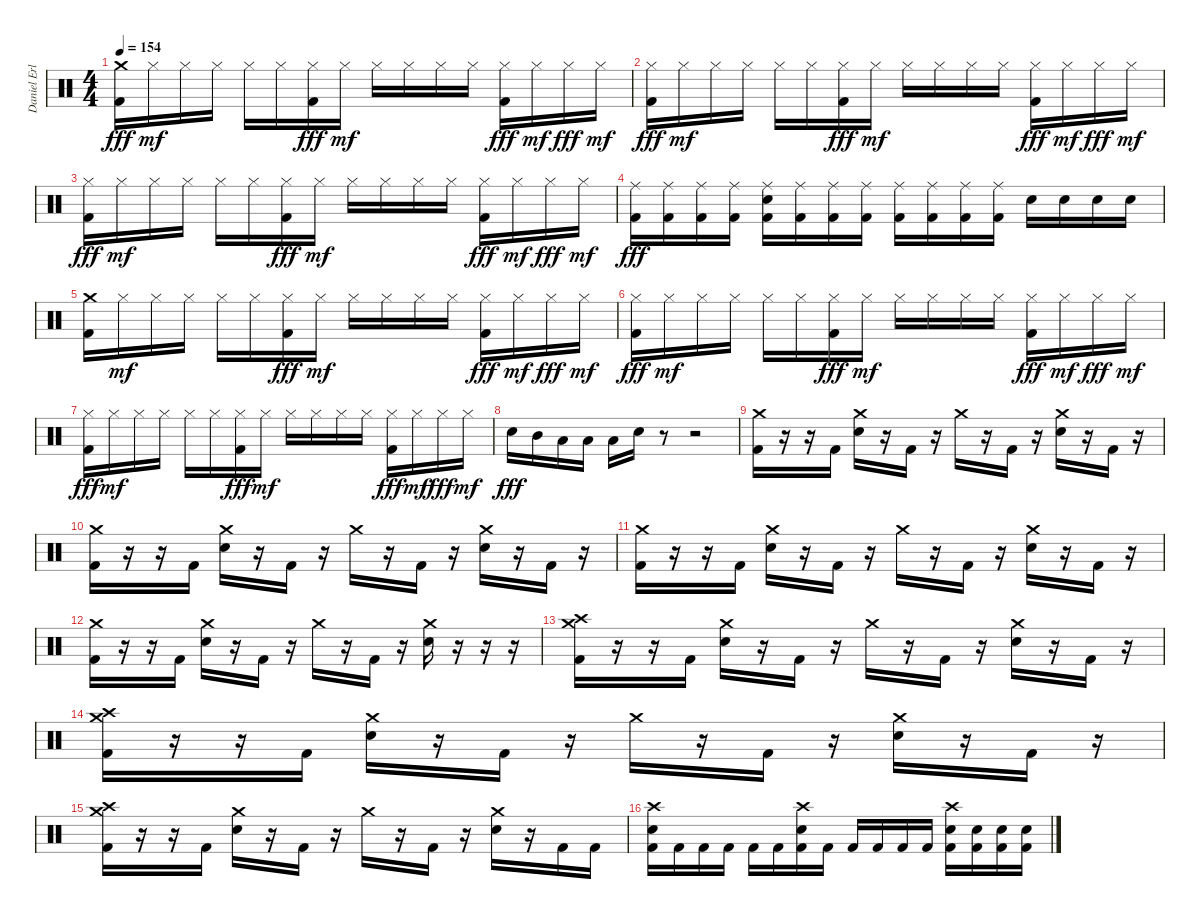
\track ("Daniel Erlandsson" "Daniel Erl") {instrument percussion}
\staff {score}
\articulation defaults
\ts (4 4)
\tempo 154
\clef neutral
\ks c
("Crash medium (hit)" "Kick (hit) 2").16{dy fff} "Hi-Hat (closed)".16{dy mf} "Hi-Hat (closed)".16 "Hi-Hat (closed)".16 "Hi-Hat (closed)".16 "Hi-Hat (closed)".16 ("Hi-Hat (closed)" "Kick (hit) 2").16{dy fff} "Hi-Hat (closed)".16{dy mf} "Hi-Hat (closed)".16 "Hi-Hat (closed)".16 "Hi-Hat (closed)".16 "Hi-Hat (closed)".16 ("Hi-Hat (closed)" "Kick (hit) 2").16{dy fff} "Hi-Hat (closed)".16{dy mf} "Hi-Hat (closed)".16{dy fff} "Hi-Hat (closed)".16{dy mf} |
("Hi-Hat (closed)" "Kick (hit) 2").16{dy fff} "Hi-Hat (closed)".16{dy mf} "Hi-Hat (closed)".16 "Hi-Hat (closed)".16 "Hi-Hat (closed)".16 "Hi-Hat (closed)".16 ("Hi-Hat (closed)" "Kick (hit) 2").16{dy fff} "Hi-Hat (closed)".16{dy mf} "Hi-Hat (closed)".16 "Hi-Hat (closed)".16 "Hi-Hat (closed)".16 "Hi-Hat (closed)".16 ("Hi-Hat (closed)" "Kick (hit) 2").16{dy fff} "Hi-Hat (closed)".16{dy mf} "Hi-Hat (closed)".16{dy fff} "Hi-Hat (closed)".16{dy mf} |
("Hi-Hat (closed)" "Kick (hit) 2").16{dy fff} "Hi-Hat (closed)".16{dy mf} "Hi-Hat (closed)".16 "Hi-Hat (closed)".16 "Hi-Hat (closed)".16 "Hi-Hat (closed)".16 ("Hi-Hat (closed)" "Kick (hit) 2").16{dy fff} "Hi-Hat (closed)".16{dy mf} "Hi-Hat (closed)".16 "Hi-Hat (closed)".16 "Hi-Hat (closed)".16 "Hi-Hat (closed)".16 ("Hi-Hat (closed)" "Kick (hit) 2").16{dy fff} "Hi-Hat (closed)".16{dy mf} "Hi-Hat (closed)".16{dy fff} "Hi-Hat (closed)".16{dy mf} |
("Ride (middle)" "Kick (hit) 2").16{dy fff} ("Ride (middle)" "Kick (hit) 2").16 ("Ride (middle)" "Kick (hit) 2").16 ("Ride (middle)" "Kick (hit) 2").16 ("Ride (middle)" "Electric Snare (hit)" "Kick (hit) 2").16 ("Ride (middle)" "Kick (hit) 2").16 ("Ride (middle)" "Kick (hit) 2").16 ("Ride (middle)" "Kick (hit) 2").16 ("Ride (middle)" "Kick (hit) 2").16 ("Ride (middle)" "Kick (hit) 2").16 ("Ride (middle)" "Kick (hit) 2").16 ("Ride (middle)" "Kick (hit) 2").16 "Electric Snare (hit)".16 "Electric Snare (hit)".16 "Electric Snare (hit)".16 "Electric Snare (hit)".16 |
("Crash medium (hit)" "Kick (hit) 2").16 "Hi-Hat (closed)".16{dy mf} "Hi-Hat (closed)".16 "Hi-Hat (closed)".16 "Hi-Hat (closed)".16 "Hi-Hat (closed)".16 ("Hi-Hat (closed)" "Kick (hit) 2").16{dy fff} "Hi-Hat (closed)".16{dy mf} "Hi-Hat (closed)".16 "Hi-Hat (closed)".16 "Hi-Hat (closed)".16 "Hi-Hat (closed)".16 ("Hi-Hat (closed)" "Kick (hit) 2").16{dy fff} "Hi-Hat (closed)".16{dy mf} "Hi-Hat (closed)".16{dy fff} "Hi-Hat (closed)".16{dy mf} |
("Hi-Hat (closed)" "Kick (hit) 2").16{dy fff} "Hi-Hat (closed)".16{dy mf} "Hi-Hat (closed)".16 "Hi-Hat (closed)".16 "Hi-Hat (closed)".16 "Hi-Hat (closed)".16 ("Hi-Hat (closed)" "Kick (hit) 2").16{dy fff} "Hi-Hat (closed)".16{dy mf} "Hi-Hat (closed)".16 "Hi-Hat (closed)".16 "Hi-Hat (closed)".16 "Hi-Hat (closed)".16 ("Hi-Hat (closed)" "Kick (hit) 2").16{dy fff} "Hi-Hat (closed)".16{dy mf} "Hi-Hat (closed)".16{dy fff} "Hi-Hat (closed)".16{dy mf} |
("Hi-Hat (closed)" "Kick (hit) 2").16{dy fff} "Hi-Hat (closed)".16{dy mf} "Hi-Hat (closed)".16 "Hi-Hat (closed)".16 "Hi-Hat (closed)".16 "Hi-Hat (closed)".16 ("Hi-Hat (closed)" "Kick (hit) 2").16{dy fff} "Hi-Hat (closed)".16{dy mf} "Hi-Hat (closed)".16 "Hi-Hat (closed)".16 "Hi-Hat (closed)".16 "Hi-Hat (closed)".16 ("Hi-Hat (closed)" "Kick (hit) 2").16{dy fff} "Hi-Hat (closed)".16{dy mf} "Hi-Hat (closed)".16{dy fff} "Hi-Hat (closed)".16{dy mf} |
"Electric Snare (hit)".16{dy fff} "Mid Tom (hit)".16 "Low Tom (hit)".16 "Low Tom (hit)".16 "Low Tom (hit)".16 "Electric Snare (hit)".16 r.8 r.2 |
("Crash medium (hit)" "Kick (hit) 2").16 r.16 r.16 "Kick (hit) 2".16 ("Crash medium (hit)" "Electric Snare (hit)").16 r.16 "Kick (hit) 2".16 r.16 "Crash medium (hit)".16 r.16 "Kick (hit) 2".16 r.16 ("Crash medium (hit)" "Electric Snare (hit)").16 r.16 "Kick (hit) 2".16 r.16 |
("Crash medium (hit)" "Kick (hit) 2").16 r.16 r.16 "Kick (hit) 2".16 ("Crash medium (hit)" "Electric Snare (hit)").16 r.16 "Kick (hit) 2".16 r.16 "Crash medium (hit)".16 r.16 "Kick (hit) 2".16 r.16 ("Crash medium (hit)" "Electric Snare (hit)").16 r.16 "Kick (hit) 2".16 r.16 |
("Crash medium (hit)" "Kick (hit) 2").16 r.16 r.16 "Kick (hit) 2".16 ("Crash medium (hit)" "Electric Snare (hit)").16 r.16 "Kick (hit) 2".16 r.16 "Crash medium (hit)".16 r.16 "Kick (hit) 2".16 r.16 ("Crash medium (hit)" "Electric Snare (hit)").16 r.16 "Kick (hit) 2".16 r.16 |
("Crash medium (hit)" "Kick (hit) 2").16 r.16 r.16 "Kick (hit) 2".16 ("Crash medium (hit)" "Electric Snare (hit)").16 r.16 "Kick (hit) 2".16 r.16 "Crash medium (hit)".16 r.16 "Kick (hit) 2".16 r.16 ("Crash medium (hit)" "Electric Snare (hit)").16 r.16 r.16 r.16 |
("Crash medium (hit)" "Crash high (hit)" "Kick (hit) 2").16 r.16 r.16 "Kick (hit) 2".16 ("Crash medium (hit)" "Electric Snare (hit)").16 r.16 "Kick (hit) 2".16 r.16 "Crash medium (hit)".16 r.16 "Kick (hit) 2".16 r.16 ("Crash medium (hit)" "Electric Snare (hit)").16 r.16 "Kick (hit) 2".16 r.16 |
("Crash medium (hit)" "Crash high (hit)" "Kick (hit) 2").16 r.16 r.16 "Kick (hit) 2".16 ("Crash medium (hit)" "Electric Snare (hit)").16 r.16 "Kick (hit) 2".16 r.16 "Crash medium (hit)".16 r.16 "Kick (hit) 2".16 r.16 ("Crash medium (hit)" "Electric Snare (hit)").16 r.16 "Kick (hit) 2".16 r.16 |
("Crash medium (hit)" "Crash high (hit)" "Kick (hit) 2").16 r.16 r.16 "Kick (hit) 2".16 ("Crash medium (hit)" "Electric Snare (hit)").16 r.16 "Kick (hit) 2".16 r.16 "Crash medium (hit)".16 r.16 "Kick (hit) 2".16 r.16 ("Crash medium (hit)" "Electric Snare (hit)").16 r.16 "Kick (hit) 2".16 "Kick (hit) 2".16 |
("Crash high (hit)" "Electric Snare (hit)" "Kick (hit) 2").16 "Kick (hit) 2".16 "Kick (hit) 2".16 "Kick (hit) 2".16 "Kick (hit) 2".16 "Kick (hit) 2".16 ("Crash high (hit)" "Electric Snare (hit)" "Kick (hit) 2").16 "Kick (hit) 2".16 "Kick (hit) 2".16 "Kick (hit) 2".16 "Kick (hit) 2".16 "Kick (hit) 2".16 ("Crash high (hit)" "Electric Snare (hit)" "Kick (hit) 2").16 ("Electric Snare (hit)" "Kick (hit) 2").16 ("Electric Snare (hit)" "Kick (hit) 2").16 ("Electric Snare (hit)" "Kick (hit) 2").16
